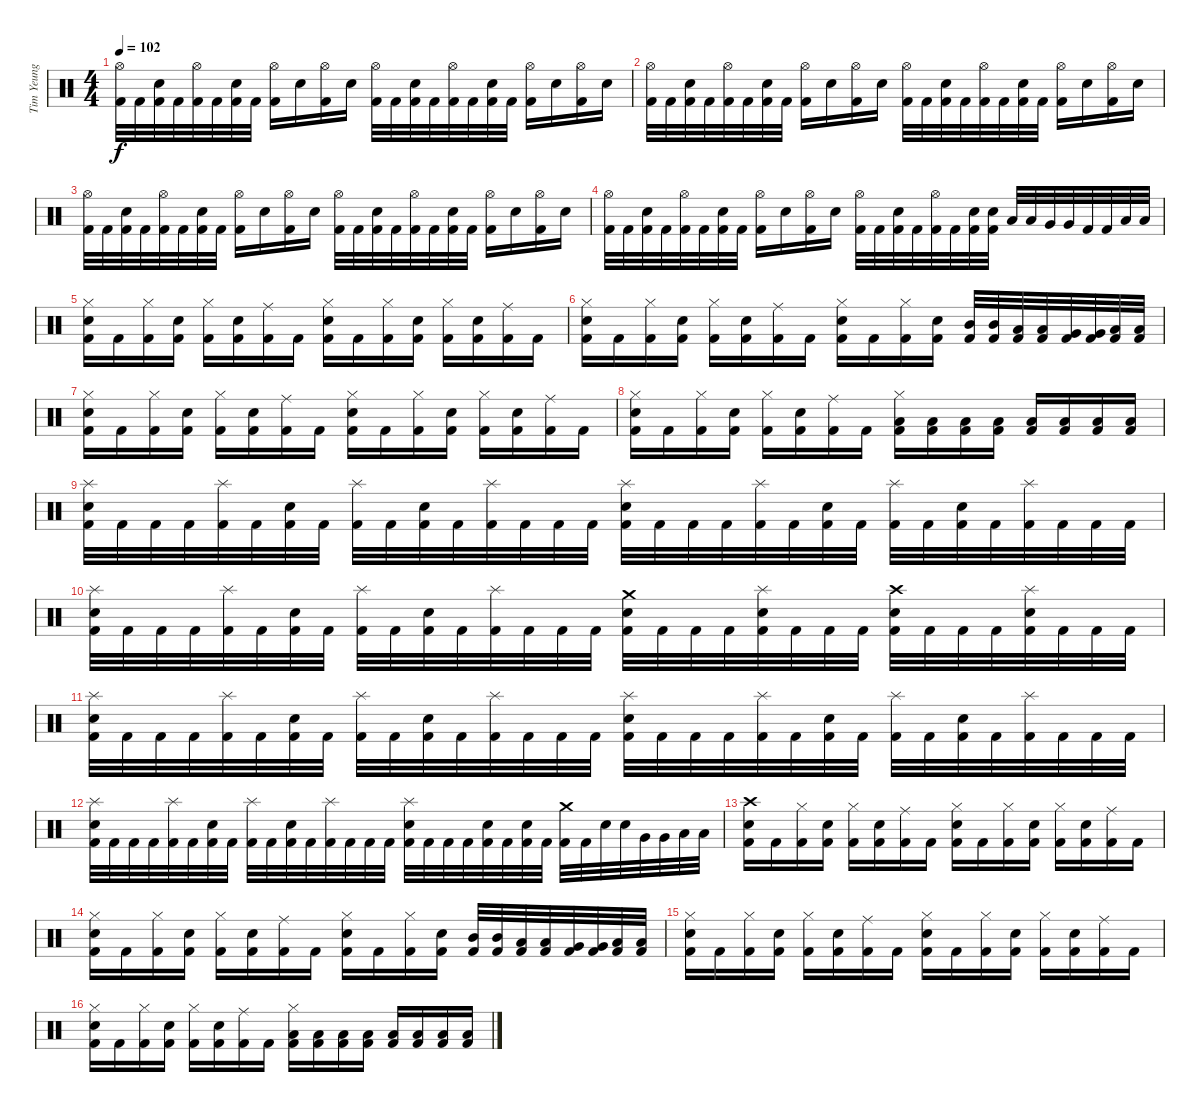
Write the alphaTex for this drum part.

\track ("Tim Yeung" "Tim Yeung") {instrument percussion}
\staff {score}
\articulation defaults
\ts (4 4)
\tempo 102
\clef neutral
\ks c
("Hi-Hat (open)" "Kick (hit) 2").32{dy f} "Kick (hit) 2".32 ("Electric Snare (hit)" "Kick (hit) 2").32 "Kick (hit) 2".32 ("Hi-Hat (open)" "Kick (hit) 2").32 "Kick (hit) 2".32 ("Electric Snare (hit)" "Kick (hit) 2").32 "Kick (hit) 2".32 ("Hi-Hat (open)" "Kick (hit) 2").16 "Electric Snare (hit)".16 ("Hi-Hat (open)" "Kick (hit) 2").16 "Electric Snare (hit)".16 ("Hi-Hat (open)" "Kick (hit) 2").32 "Kick (hit) 2".32 ("Electric Snare (hit)" "Kick (hit) 2").32 "Kick (hit) 2".32 ("Hi-Hat (open)" "Kick (hit) 2").32 "Kick (hit) 2".32 ("Electric Snare (hit)" "Kick (hit) 2").32 "Kick (hit) 2".32 ("Hi-Hat (open)" "Kick (hit) 2").16 "Electric Snare (hit)".16 ("Hi-Hat (open)" "Kick (hit) 2").16 "Electric Snare (hit)".16 |
("Hi-Hat (open)" "Kick (hit) 2").32 "Kick (hit) 2".32 ("Electric Snare (hit)" "Kick (hit) 2").32 "Kick (hit) 2".32 ("Hi-Hat (open)" "Kick (hit) 2").32 "Kick (hit) 2".32 ("Electric Snare (hit)" "Kick (hit) 2").32 "Kick (hit) 2".32 ("Hi-Hat (open)" "Kick (hit) 2").16 "Electric Snare (hit)".16 ("Hi-Hat (open)" "Kick (hit) 2").16 "Electric Snare (hit)".16 ("Hi-Hat (open)" "Kick (hit) 2").32 "Kick (hit) 2".32 ("Electric Snare (hit)" "Kick (hit) 2").32 "Kick (hit) 2".32 ("Hi-Hat (open)" "Kick (hit) 2").32 "Kick (hit) 2".32 ("Electric Snare (hit)" "Kick (hit) 2").32 "Kick (hit) 2".32 ("Hi-Hat (open)" "Kick (hit) 2").16 "Electric Snare (hit)".16 ("Hi-Hat (open)" "Kick (hit) 2").16 "Electric Snare (hit)".16 |
("Hi-Hat (open)" "Kick (hit) 2").32 "Kick (hit) 2".32 ("Electric Snare (hit)" "Kick (hit) 2").32 "Kick (hit) 2".32 ("Hi-Hat (open)" "Kick (hit) 2").32 "Kick (hit) 2".32 ("Electric Snare (hit)" "Kick (hit) 2").32 "Kick (hit) 2".32 ("Hi-Hat (open)" "Kick (hit) 2").16 "Electric Snare (hit)".16 ("Hi-Hat (open)" "Kick (hit) 2").16 "Electric Snare (hit)".16 ("Hi-Hat (open)" "Kick (hit) 2").32 "Kick (hit) 2".32 ("Electric Snare (hit)" "Kick (hit) 2").32 "Kick (hit) 2".32 ("Hi-Hat (open)" "Kick (hit) 2").32 "Kick (hit) 2".32 ("Electric Snare (hit)" "Kick (hit) 2").32 "Kick (hit) 2".32 ("Hi-Hat (open)" "Kick (hit) 2").16 "Electric Snare (hit)".16 ("Hi-Hat (open)" "Kick (hit) 2").16 "Electric Snare (hit)".16 |
("Hi-Hat (open)" "Kick (hit) 2").32 "Kick (hit) 2".32 ("Electric Snare (hit)" "Kick (hit) 2").32 "Kick (hit) 2".32 ("Hi-Hat (open)" "Kick (hit) 2").32 "Kick (hit) 2".32 ("Electric Snare (hit)" "Kick (hit) 2").32 "Kick (hit) 2".32 ("Hi-Hat (open)" "Kick (hit) 2").16 "Electric Snare (hit)".16 ("Hi-Hat (open)" "Kick (hit) 2").16 "Electric Snare (hit)".16 ("Hi-Hat (open)" "Kick (hit) 2").32 "Kick (hit) 2".32 ("Electric Snare (hit)" "Kick (hit) 2").32 "Kick (hit) 2".32 ("Hi-Hat (open)" "Kick (hit) 2").32 "Kick (hit) 2".32 ("Electric Snare (hit)" "Kick (hit) 2").32 ("Electric Snare (hit)" "Kick (hit) 2").32 "Low Tom (hit)".32 "Low Tom (hit)".32 "Very Low Tom (hit)".32 "Very Low Tom (hit)".32 "Kick (hit) 2".32 "Kick (hit) 2".32 "Low Floor Tom (hit)".32 "Low Floor Tom (hit)".32 |
("Hi-Hat (closed)" "Electric Snare (hit)" "Kick (hit) 2").16 "Kick (hit) 2".16 ("Hi-Hat (closed)" "Kick (hit) 2").16 ("Electric Snare (hit)" "Kick (hit) 2").16 ("Hi-Hat (closed)" "Kick (hit) 2").16 ("Electric Snare (hit)" "Kick (hit) 2").16 ("Ride (middle)" "Kick (hit) 2").16 "Kick (hit) 2".16 ("Hi-Hat (closed)" "Electric Snare (hit)" "Kick (hit) 2").16 "Kick (hit) 2".16 ("Hi-Hat (closed)" "Kick (hit) 2").16 ("Electric Snare (hit)" "Kick (hit) 2").16 ("Hi-Hat (closed)" "Kick (hit) 2").16 ("Electric Snare (hit)" "Kick (hit) 2").16 ("Ride (middle)" "Kick (hit) 2").16 "Kick (hit) 2".16 |
("Hi-Hat (closed)" "Electric Snare (hit)" "Kick (hit) 2").16 "Kick (hit) 2".16 ("Hi-Hat (closed)" "Kick (hit) 2").16 ("Electric Snare (hit)" "Kick (hit) 2").16 ("Hi-Hat (closed)" "Kick (hit) 2").16 ("Electric Snare (hit)" "Kick (hit) 2").16 ("Ride (middle)" "Kick (hit) 2").16 "Kick (hit) 2".16 ("Hi-Hat (closed)" "Electric Snare (hit)" "Kick (hit) 2").16 "Kick (hit) 2".16 ("Hi-Hat (closed)" "Kick (hit) 2").16 ("Electric Snare (hit)" "Kick (hit) 2").16 ("Mid Tom (hit)" "Kick (hit) 2").32 ("Mid Tom (hit)" "Kick (hit) 2").32 ("Low Tom (hit)" "Kick (hit) 2").32 ("Low Tom (hit)" "Kick (hit) 2").32 ("Very Low Tom (hit)" "Kick (hit) 2").32 ("Very Low Tom (hit)" "Kick (hit) 2").32 ("Low Floor Tom (hit)" "Kick (hit) 2").32 ("Low Floor Tom (hit)" "Kick (hit) 2").32 |
("Hi-Hat (closed)" "Electric Snare (hit)" "Kick (hit) 2").16 "Kick (hit) 2".16 ("Hi-Hat (closed)" "Kick (hit) 2").16 ("Electric Snare (hit)" "Kick (hit) 2").16 ("Hi-Hat (closed)" "Kick (hit) 2").16 ("Electric Snare (hit)" "Kick (hit) 2").16 ("Ride (middle)" "Kick (hit) 2").16 "Kick (hit) 2".16 ("Hi-Hat (closed)" "Electric Snare (hit)" "Kick (hit) 2").16 "Kick (hit) 2".16 ("Hi-Hat (closed)" "Kick (hit) 2").16 ("Electric Snare (hit)" "Kick (hit) 2").16 ("Hi-Hat (closed)" "Kick (hit) 2").16 ("Electric Snare (hit)" "Kick (hit) 2").16 ("Ride (middle)" "Kick (hit) 2").16 "Kick (hit) 2".16 |
("Hi-Hat (closed)" "Electric Snare (hit)" "Kick (hit) 2").16 "Kick (hit) 2".16 ("Hi-Hat (closed)" "Kick (hit) 2").16 ("Electric Snare (hit)" "Kick (hit) 2").16 ("Hi-Hat (closed)" "Kick (hit) 2").16 ("Electric Snare (hit)" "Kick (hit) 2").16 ("Ride (middle)" "Kick (hit) 2").16 "Kick (hit) 2".16 ("Hi-Hat (closed)" "Low Floor Tom (hit)" "Kick (hit) 2").16 ("Low Floor Tom (hit)" "Kick (hit) 2").16 ("Low Floor Tom (hit)" "Kick (hit) 2").16 ("Low Floor Tom (hit)" "Kick (hit) 2").16 ("Low Floor Tom (hit)" "Kick (hit) 2").16 ("Low Floor Tom (hit)" "Kick (hit) 2").16 ("Low Floor Tom (hit)" "Kick (hit) 2").16 ("Low Floor Tom (hit)" "Kick (hit) 2").16 |
("Splash (hit)" "Electric Snare (hit)" "Kick (hit) 2").32 "Kick (hit) 2".32 "Kick (hit) 2".32 "Kick (hit) 2".32 ("Splash (hit)" "Kick (hit) 2").32 "Kick (hit) 2".32 ("Electric Snare (hit)" "Kick (hit) 2").32 "Kick (hit) 2".32 ("Splash (hit)" "Kick (hit) 2").32 "Kick (hit) 2".32 ("Electric Snare (hit)" "Kick (hit) 2").32 "Kick (hit) 2".32 ("Splash (hit)" "Kick (hit) 2").32 "Kick (hit) 2".32 "Kick (hit) 2".32 "Kick (hit) 2".32 ("Splash (hit)" "Electric Snare (hit)" "Kick (hit) 2").32 "Kick (hit) 2".32 "Kick (hit) 2".32 "Kick (hit) 2".32 ("Splash (hit)" "Kick (hit) 2").32 "Kick (hit) 2".32 ("Electric Snare (hit)" "Kick (hit) 2").32 "Kick (hit) 2".32 ("Splash (hit)" "Kick (hit) 2").32 "Kick (hit) 2".32 ("Electric Snare (hit)" "Kick (hit) 2").32 "Kick (hit) 2".32 ("Splash (hit)" "Kick (hit) 2").32 "Kick (hit) 2".32 "Kick (hit) 2".32 "Kick (hit) 2".32 |
("Splash (hit)" "Electric Snare (hit)" "Kick (hit) 2").32 "Kick (hit) 2".32 "Kick (hit) 2".32 "Kick (hit) 2".32 ("Splash (hit)" "Kick (hit) 2").32 "Kick (hit) 2".32 ("Electric Snare (hit)" "Kick (hit) 2").32 "Kick (hit) 2".32 ("Splash (hit)" "Kick (hit) 2").32 "Kick (hit) 2".32 ("Electric Snare (hit)" "Kick (hit) 2").32 "Kick (hit) 2".32 ("Splash (hit)" "Kick (hit) 2").32 "Kick (hit) 2".32 "Kick (hit) 2".32 "Kick (hit) 2".32 ("Crash medium (hit)" "Electric Snare (hit)" "Kick (hit) 2").32 "Kick (hit) 2".32 "Kick (hit) 2".32 "Kick (hit) 2".32 ("Splash (hit)" "Electric Snare (hit)" "Kick (hit) 2").32 "Kick (hit) 2".32 "Kick (hit) 2".32 "Kick (hit) 2".32 ("Crash high (hit)" "Electric Snare (hit)" "Kick (hit) 2").32 "Kick (hit) 2".32 "Kick (hit) 2".32 "Kick (hit) 2".32 ("Splash (hit)" "Electric Snare (hit)" "Kick (hit) 2").32 "Kick (hit) 2".32 "Kick (hit) 2".32 "Kick (hit) 2".32 |
("Splash (hit)" "Electric Snare (hit)" "Kick (hit) 2").32 "Kick (hit) 2".32 "Kick (hit) 2".32 "Kick (hit) 2".32 ("Splash (hit)" "Kick (hit) 2").32 "Kick (hit) 2".32 ("Electric Snare (hit)" "Kick (hit) 2").32 "Kick (hit) 2".32 ("Splash (hit)" "Kick (hit) 2").32 "Kick (hit) 2".32 ("Electric Snare (hit)" "Kick (hit) 2").32 "Kick (hit) 2".32 ("Splash (hit)" "Kick (hit) 2").32 "Kick (hit) 2".32 "Kick (hit) 2".32 "Kick (hit) 2".32 ("Splash (hit)" "Electric Snare (hit)" "Kick (hit) 2").32 "Kick (hit) 2".32 "Kick (hit) 2".32 "Kick (hit) 2".32 ("Splash (hit)" "Kick (hit) 2").32 "Kick (hit) 2".32 ("Electric Snare (hit)" "Kick (hit) 2").32 "Kick (hit) 2".32 ("Splash (hit)" "Kick (hit) 2").32 "Kick (hit) 2".32 ("Electric Snare (hit)" "Kick (hit) 2").32 "Kick (hit) 2".32 ("Splash (hit)" "Kick (hit) 2").32 "Kick (hit) 2".32 "Kick (hit) 2".32 "Kick (hit) 2".32 |
("Splash (hit)" "Electric Snare (hit)" "Kick (hit) 2").32 "Kick (hit) 2".32 "Kick (hit) 2".32 "Kick (hit) 2".32 ("Splash (hit)" "Kick (hit) 2").32 "Kick (hit) 2".32 ("Electric Snare (hit)" "Kick (hit) 2").32 "Kick (hit) 2".32 ("Splash (hit)" "Kick (hit) 2").32 "Kick (hit) 2".32 ("Electric Snare (hit)" "Kick (hit) 2").32 "Kick (hit) 2".32 ("Splash (hit)" "Kick (hit) 2").32 "Kick (hit) 2".32 "Kick (hit) 2".32 "Kick (hit) 2".32 ("Splash (hit)" "Electric Snare (hit)" "Kick (hit) 2").32 "Kick (hit) 2".32 "Kick (hit) 2".32 "Kick (hit) 2".32 ("Electric Snare (hit)" "Kick (hit) 2").32 "Kick (hit) 2".32 ("Electric Snare (hit)" "Kick (hit) 2").32 "Kick (hit) 2".32 ("Crash medium (hit)" "Kick (hit) 2").32 "Kick (hit) 2".32 "Electric Snare (hit)".32 "Electric Snare (hit)".32 "Very Low Tom (hit)".32 "Very Low Tom (hit)".32 "Low Floor Tom (hit)".32 "Low Floor Tom (hit)".32 |
("Crash high (hit)" "Electric Snare (hit)" "Kick (hit) 2").16 "Kick (hit) 2".16 ("Hi-Hat (closed)" "Kick (hit) 2").16 ("Electric Snare (hit)" "Kick (hit) 2").16 ("Hi-Hat (closed)" "Kick (hit) 2").16 ("Electric Snare (hit)" "Kick (hit) 2").16 ("Ride (middle)" "Kick (hit) 2").16 "Kick (hit) 2".16 ("Hi-Hat (closed)" "Electric Snare (hit)" "Kick (hit) 2").16 "Kick (hit) 2".16 ("Hi-Hat (closed)" "Kick (hit) 2").16 ("Electric Snare (hit)" "Kick (hit) 2").16 ("Hi-Hat (closed)" "Kick (hit) 2").16 ("Electric Snare (hit)" "Kick (hit) 2").16 ("Ride (middle)" "Kick (hit) 2").16 "Kick (hit) 2".16 |
("Hi-Hat (closed)" "Electric Snare (hit)" "Kick (hit) 2").16 "Kick (hit) 2".16 ("Hi-Hat (closed)" "Kick (hit) 2").16 ("Electric Snare (hit)" "Kick (hit) 2").16 ("Hi-Hat (closed)" "Kick (hit) 2").16 ("Electric Snare (hit)" "Kick (hit) 2").16 ("Ride (middle)" "Kick (hit) 2").16 "Kick (hit) 2".16 ("Hi-Hat (closed)" "Electric Snare (hit)" "Kick (hit) 2").16 "Kick (hit) 2".16 ("Hi-Hat (closed)" "Kick (hit) 2").16 ("Electric Snare (hit)" "Kick (hit) 2").16 ("Mid Tom (hit)" "Kick (hit) 2").32 ("Mid Tom (hit)" "Kick (hit) 2").32 ("Low Tom (hit)" "Kick (hit) 2").32 ("Low Tom (hit)" "Kick (hit) 2").32 ("Very Low Tom (hit)" "Kick (hit) 2").32 ("Very Low Tom (hit)" "Kick (hit) 2").32 ("Low Floor Tom (hit)" "Kick (hit) 2").32 ("Low Floor Tom (hit)" "Kick (hit) 2").32 |
("Hi-Hat (closed)" "Electric Snare (hit)" "Kick (hit) 2").16 "Kick (hit) 2".16 ("Hi-Hat (closed)" "Kick (hit) 2").16 ("Electric Snare (hit)" "Kick (hit) 2").16 ("Hi-Hat (closed)" "Kick (hit) 2").16 ("Electric Snare (hit)" "Kick (hit) 2").16 ("Ride (middle)" "Kick (hit) 2").16 "Kick (hit) 2".16 ("Hi-Hat (closed)" "Electric Snare (hit)" "Kick (hit) 2").16 "Kick (hit) 2".16 ("Hi-Hat (closed)" "Kick (hit) 2").16 ("Electric Snare (hit)" "Kick (hit) 2").16 ("Hi-Hat (closed)" "Kick (hit) 2").16 ("Electric Snare (hit)" "Kick (hit) 2").16 ("Ride (middle)" "Kick (hit) 2").16 "Kick (hit) 2".16 |
("Hi-Hat (closed)" "Electric Snare (hit)" "Kick (hit) 2").16 "Kick (hit) 2".16 ("Hi-Hat (closed)" "Kick (hit) 2").16 ("Electric Snare (hit)" "Kick (hit) 2").16 ("Hi-Hat (closed)" "Kick (hit) 2").16 ("Electric Snare (hit)" "Kick (hit) 2").16 ("Ride (middle)" "Kick (hit) 2").16 "Kick (hit) 2".16 ("Hi-Hat (closed)" "Low Floor Tom (hit)" "Kick (hit) 2").16 ("Low Floor Tom (hit)" "Kick (hit) 2").16 ("Low Floor Tom (hit)" "Kick (hit) 2").16 ("Low Floor Tom (hit)" "Kick (hit) 2").16 ("Low Floor Tom (hit)" "Kick (hit) 2").16 ("Low Floor Tom (hit)" "Kick (hit) 2").16 ("Low Floor Tom (hit)" "Kick (hit) 2").16 ("Low Floor Tom (hit)" "Kick (hit) 2").16
